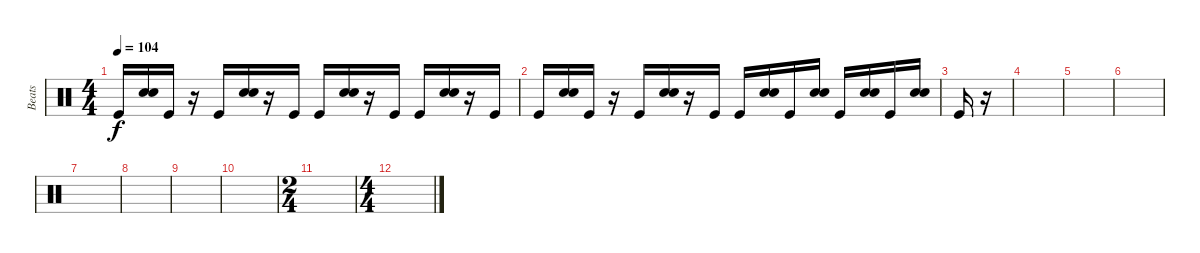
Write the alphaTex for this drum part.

\track ("Beats" "Beats") {instrument percussion}
\staff {score}
\articulation defaults
\ts (4 4)
\tempo 104
\clef neutral
\ks c "Kick (hit)".16{dy f}
("Snare (hit) 2" "Snare (hit) 2").16 "Kick (hit)".16 r.16 "Kick (hit)".16 ("Snare (hit) 2" "Snare (hit) 2").16 r.16 "Kick (hit)".16 "Kick (hit)".16 ("Snare (hit) 2" "Snare (hit) 2").16 r.16 "Kick (hit)".16 "Kick (hit)".16 ("Snare (hit) 2" "Snare (hit) 2").16 r.16 "Kick (hit)".16 |
"Kick (hit)".16 ("Snare (hit) 2" "Snare (hit) 2").16 "Kick (hit)".16 r.16 "Kick (hit)".16 ("Snare (hit) 2" "Snare (hit) 2").16 r.16 "Kick (hit)".16 "Kick (hit)".16 ("Snare (hit) 2" "Snare (hit) 2").16 "Kick (hit)".16 ("Snare (hit) 2" "Snare (hit) 2").16 "Kick (hit)".16 ("Snare (hit) 2" "Snare (hit) 2").16 "Kick (hit)".16 ("Snare (hit) 2" "Snare (hit) 2").16 |
"Kick (hit)".16 r.16 |
|
|
|
|
|
|
|
\ts (2 4)
|
\ts (4 4)
